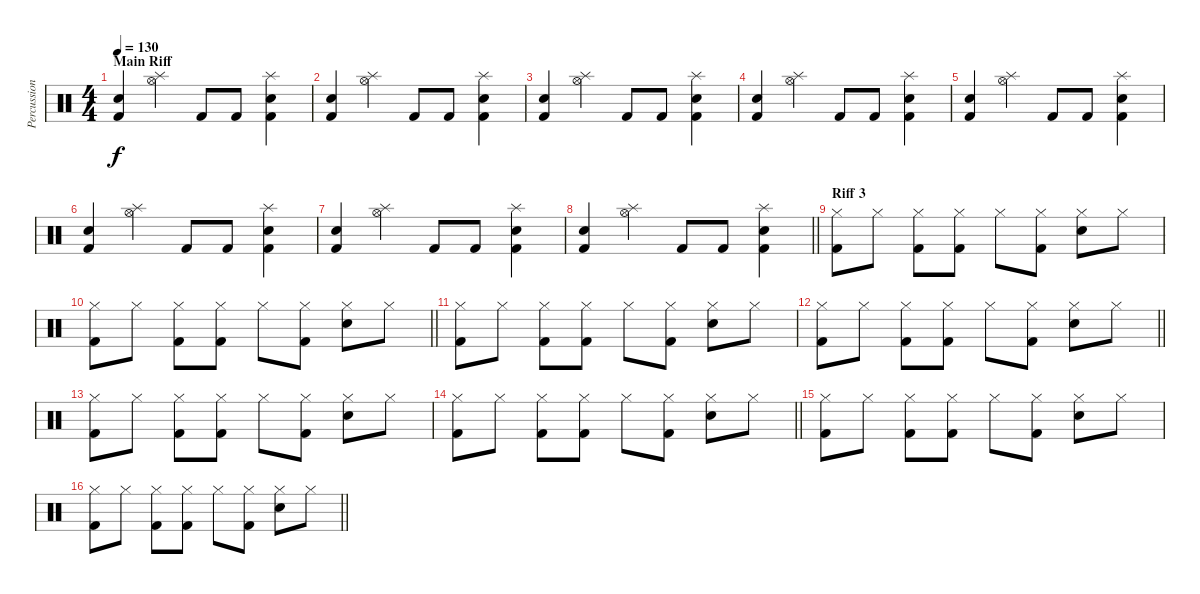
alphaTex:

\track ("Percussion" "Percussion") {instrument percussion}
\staff {score}
\articulation defaults
\ts (4 4)
\section ("" "Main Riff")
\tempo 130
\clef neutral
\ks c
("Kick (hit) 2" "Electric Snare (hit)").4{dy f} ("Hi-Hat (open)" "Splash (hit)").4 "Kick (hit) 2".8 "Kick (hit) 2".8 ("Kick (hit) 2" "Splash (hit)" "Electric Snare (hit)").4 |
("Kick (hit) 2" "Electric Snare (hit)").4 ("Hi-Hat (open)" "Splash (hit)").4 "Kick (hit) 2".8 "Kick (hit) 2".8 ("Kick (hit) 2" "Splash (hit)" "Electric Snare (hit)").4 |
("Kick (hit) 2" "Electric Snare (hit)").4 ("Hi-Hat (open)" "Splash (hit)").4 "Kick (hit) 2".8 "Kick (hit) 2".8 ("Kick (hit) 2" "Splash (hit)" "Electric Snare (hit)").4 |
("Kick (hit) 2" "Electric Snare (hit)").4 ("Hi-Hat (open)" "Splash (hit)").4 "Kick (hit) 2".8 "Kick (hit) 2".8 ("Kick (hit) 2" "Splash (hit)" "Electric Snare (hit)").4 |
("Kick (hit) 2" "Electric Snare (hit)").4 ("Hi-Hat (open)" "Splash (hit)").4 "Kick (hit) 2".8 "Kick (hit) 2".8 ("Kick (hit) 2" "Splash (hit)" "Electric Snare (hit)").4 |
("Kick (hit) 2" "Electric Snare (hit)").4 ("Hi-Hat (open)" "Splash (hit)").4 "Kick (hit) 2".8 "Kick (hit) 2".8 ("Kick (hit) 2" "Splash (hit)" "Electric Snare (hit)").4 |
("Kick (hit) 2" "Electric Snare (hit)").4 ("Hi-Hat (open)" "Splash (hit)").4 "Kick (hit) 2".8 "Kick (hit) 2".8 ("Kick (hit) 2" "Splash (hit)" "Electric Snare (hit)").4 |
\barLineRight lightlight
("Kick (hit) 2" "Electric Snare (hit)").4 ("Hi-Hat (open)" "Splash (hit)").4 "Kick (hit) 2".8 "Kick (hit) 2".8 ("Kick (hit) 2" "Splash (hit)" "Electric Snare (hit)").4 |
\section ("" "Riff 3")
("Kick (hit) 2" "Hi-Hat (closed)").8 "Hi-Hat (closed)".8 ("Kick (hit) 2" "Hi-Hat (closed)").8 ("Kick (hit) 2" "Hi-Hat (closed)").8 "Hi-Hat (closed)".8 ("Kick (hit) 2" "Hi-Hat (closed)").8 ("Snare (hit) 2" "Hi-Hat (closed)").8 "Hi-Hat (closed)".8 |
\barLineRight lightlight
("Kick (hit) 2" "Hi-Hat (closed)").8 "Hi-Hat (closed)".8 ("Kick (hit) 2" "Hi-Hat (closed)").8 ("Kick (hit) 2" "Hi-Hat (closed)").8 "Hi-Hat (closed)".8 ("Kick (hit) 2" "Hi-Hat (closed)").8 ("Snare (hit) 2" "Hi-Hat (closed)").8 "Hi-Hat (closed)".8 |
("Kick (hit) 2" "Hi-Hat (closed)").8 "Hi-Hat (closed)".8 ("Kick (hit) 2" "Hi-Hat (closed)").8 ("Kick (hit) 2" "Hi-Hat (closed)").8 "Hi-Hat (closed)".8 ("Kick (hit) 2" "Hi-Hat (closed)").8 ("Snare (hit) 2" "Hi-Hat (closed)").8 "Hi-Hat (closed)".8 |
\barLineRight lightlight
("Kick (hit) 2" "Hi-Hat (closed)").8 "Hi-Hat (closed)".8 ("Kick (hit) 2" "Hi-Hat (closed)").8 ("Kick (hit) 2" "Hi-Hat (closed)").8 "Hi-Hat (closed)".8 ("Kick (hit) 2" "Hi-Hat (closed)").8 ("Snare (hit) 2" "Hi-Hat (closed)").8 "Hi-Hat (closed)".8 |
("Kick (hit) 2" "Hi-Hat (closed)").8 "Hi-Hat (closed)".8 ("Kick (hit) 2" "Hi-Hat (closed)").8 ("Kick (hit) 2" "Hi-Hat (closed)").8 "Hi-Hat (closed)".8 ("Kick (hit) 2" "Hi-Hat (closed)").8 ("Snare (hit) 2" "Hi-Hat (closed)").8 "Hi-Hat (closed)".8 |
\barLineRight lightlight
("Kick (hit) 2" "Hi-Hat (closed)").8 "Hi-Hat (closed)".8 ("Kick (hit) 2" "Hi-Hat (closed)").8 ("Kick (hit) 2" "Hi-Hat (closed)").8 "Hi-Hat (closed)".8 ("Kick (hit) 2" "Hi-Hat (closed)").8 ("Snare (hit) 2" "Hi-Hat (closed)").8 "Hi-Hat (closed)".8 |
("Kick (hit) 2" "Hi-Hat (closed)").8 "Hi-Hat (closed)".8 ("Kick (hit) 2" "Hi-Hat (closed)").8 ("Kick (hit) 2" "Hi-Hat (closed)").8 "Hi-Hat (closed)".8 ("Kick (hit) 2" "Hi-Hat (closed)").8 ("Snare (hit) 2" "Hi-Hat (closed)").8 "Hi-Hat (closed)".8 |
\barLineRight lightlight
("Kick (hit) 2" "Hi-Hat (closed)").8 "Hi-Hat (closed)".8 ("Kick (hit) 2" "Hi-Hat (closed)").8 ("Kick (hit) 2" "Hi-Hat (closed)").8 "Hi-Hat (closed)".8 ("Kick (hit) 2" "Hi-Hat (closed)").8 ("Snare (hit) 2" "Hi-Hat (closed)").8 "Hi-Hat (closed)".8
